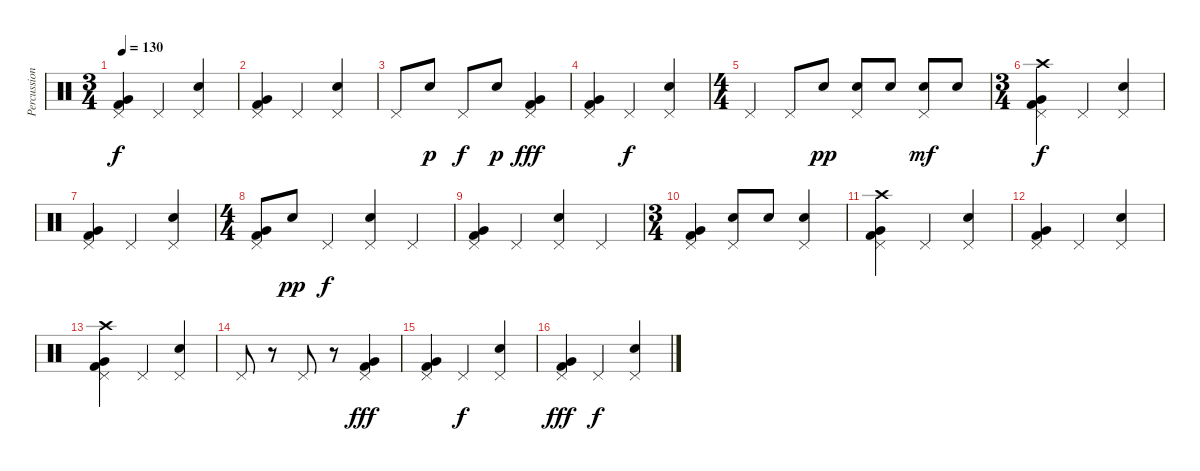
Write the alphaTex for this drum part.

\track ("Percussion" "Percussion") {instrument percussion}
\staff {score}
\articulation defaults
\ts (3 4)
\tempo 130
\clef neutral
\ks c
("Pedal Hi-Hat (hit)" "Very Low Tom (hit)" "Kick (hit) 2").4{dy f} "Pedal Hi-Hat (hit)".4 ("Pedal Hi-Hat (hit)" "Electric Snare (hit)").4 |
("Pedal Hi-Hat (hit)" "Very Low Tom (hit)" "Kick (hit) 2").4 "Pedal Hi-Hat (hit)".4 ("Pedal Hi-Hat (hit)" "Electric Snare (hit)").4 |
"Pedal Hi-Hat (hit)".8 "Electric Snare (hit)".8{dy p} "Pedal Hi-Hat (hit)".8{dy f} "Electric Snare (hit)".8{dy p} ("Pedal Hi-Hat (hit)" "Very Low Tom (hit)" "Kick (hit) 2").4{dy fff} |
("Pedal Hi-Hat (hit)" "Very Low Tom (hit)" "Kick (hit) 2").4 "Pedal Hi-Hat (hit)".4{dy f} ("Pedal Hi-Hat (hit)" "Electric Snare (hit)").4 |
\ts (4 4)
"Pedal Hi-Hat (hit)".4 "Pedal Hi-Hat (hit)".8 "Electric Snare (hit)".8{dy pp} ("Pedal Hi-Hat (hit)" "Electric Snare (hit)").8 "Electric Snare (hit)".8 ("Pedal Hi-Hat (hit)" "Electric Snare (hit)").8{dy mf} "Electric Snare (hit)".8 |
\ts (3 4)
("Crash high (hit)" "Pedal Hi-Hat (hit)" "Very Low Tom (hit)" "Kick (hit) 2").4{dy f} "Pedal Hi-Hat (hit)".4 ("Pedal Hi-Hat (hit)" "Electric Snare (hit)").4 |
("Pedal Hi-Hat (hit)" "Very Low Tom (hit)" "Kick (hit) 2").4 "Pedal Hi-Hat (hit)".4 ("Pedal Hi-Hat (hit)" "Electric Snare (hit)").4 |
\ts (4 4)
("Pedal Hi-Hat (hit)" "Very Low Tom (hit)" "Kick (hit) 2").8 "Electric Snare (hit)".8{dy pp} "Pedal Hi-Hat (hit)".4{dy f} ("Pedal Hi-Hat (hit)" "Electric Snare (hit)").4 "Pedal Hi-Hat (hit)".4 |
("Pedal Hi-Hat (hit)" "Very Low Tom (hit)" "Kick (hit) 2").4 "Pedal Hi-Hat (hit)".4 ("Pedal Hi-Hat (hit)" "Electric Snare (hit)").4 "Pedal Hi-Hat (hit)".4 |
\ts (3 4)
("Pedal Hi-Hat (hit)" "Very Low Tom (hit)" "Kick (hit) 2").4 ("Pedal Hi-Hat (hit)" "Electric Snare (hit)").8 "Electric Snare (hit)".8 ("Pedal Hi-Hat (hit)" "Electric Snare (hit)").4 |
("Crash high (hit)" "Pedal Hi-Hat (hit)" "Very Low Tom (hit)" "Kick (hit) 2").4{volume 10} "Pedal Hi-Hat (hit)".4 ("Pedal Hi-Hat (hit)" "Electric Snare (hit)").4 |
("Pedal Hi-Hat (hit)" "Very Low Tom (hit)" "Kick (hit) 2").4 "Pedal Hi-Hat (hit)".4 ("Pedal Hi-Hat (hit)" "Electric Snare (hit)").4 |
("Crash high (hit)" "Pedal Hi-Hat (hit)" "Very Low Tom (hit)" "Kick (hit) 2").4 "Pedal Hi-Hat (hit)".4 ("Pedal Hi-Hat (hit)" "Electric Snare (hit)").4 |
"Pedal Hi-Hat (hit)".8 r.8 "Pedal Hi-Hat (hit)".8 r.8 ("Pedal Hi-Hat (hit)" "Very Low Tom (hit)" "Kick (hit) 2").4{dy fff} |
("Pedal Hi-Hat (hit)" "Very Low Tom (hit)" "Kick (hit) 2").4 "Pedal Hi-Hat (hit)".4{dy f} ("Pedal Hi-Hat (hit)" "Electric Snare (hit)").4 |
("Pedal Hi-Hat (hit)" "Very Low Tom (hit)" "Kick (hit) 2").4{dy fff} "Pedal Hi-Hat (hit)".4{dy f} ("Pedal Hi-Hat (hit)" "Electric Snare (hit)").4
